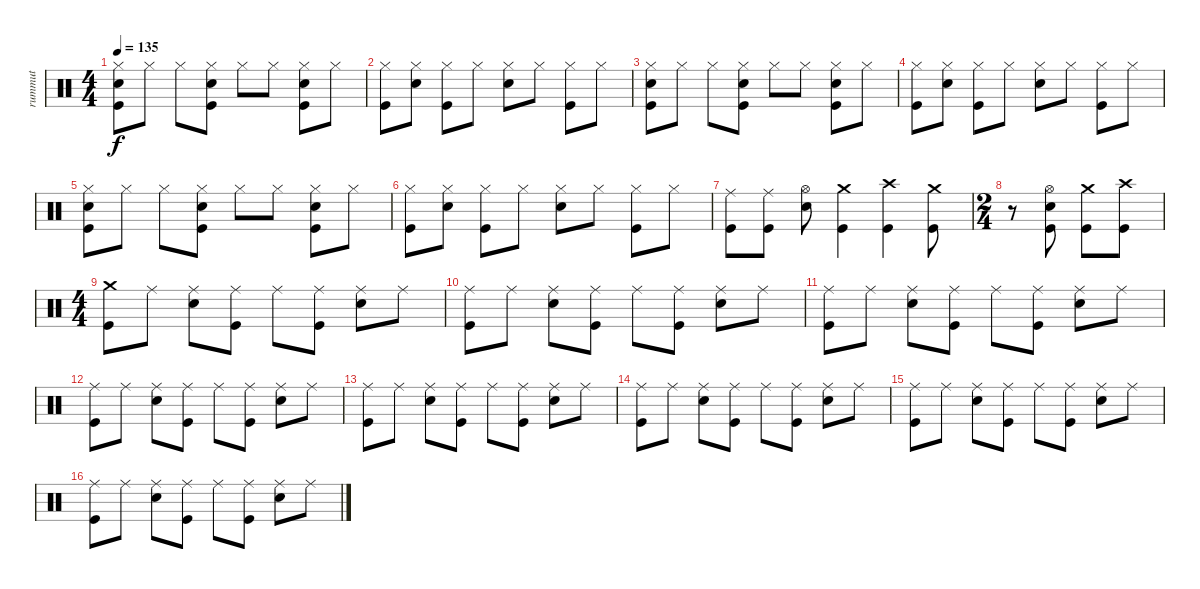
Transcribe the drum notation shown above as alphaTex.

\track ("rummut" "rummut") {instrument percussion}
\staff {score}
\articulation defaults
\ts (4 4)
\tempo 135
\clef neutral
\ks c
("Hi-Hat (closed)" "Snare (hit) 2" "Kick (hit)").8{dy f} "Hi-Hat (closed)".8 "Hi-Hat (closed)".8 ("Hi-Hat (closed)" "Snare (hit) 2" "Kick (hit)").8 "Hi-Hat (closed)".8 "Hi-Hat (closed)".8 ("Hi-Hat (closed)" "Snare (hit) 2" "Kick (hit)").8 "Hi-Hat (closed)".8 |
("Hi-Hat (closed)" "Kick (hit)").8 ("Hi-Hat (closed)" "Snare (hit) 2").8 ("Hi-Hat (closed)" "Kick (hit)").8 "Hi-Hat (closed)".8 ("Hi-Hat (closed)" "Snare (hit) 2").8 "Hi-Hat (closed)".8 ("Hi-Hat (closed)" "Kick (hit)").8 "Hi-Hat (closed)".8 |
("Hi-Hat (closed)" "Snare (hit) 2" "Kick (hit)").8 "Hi-Hat (closed)".8 "Hi-Hat (closed)".8 ("Hi-Hat (closed)" "Snare (hit) 2" "Kick (hit)").8 "Hi-Hat (closed)".8 "Hi-Hat (closed)".8 ("Hi-Hat (closed)" "Snare (hit) 2" "Kick (hit)").8 "Hi-Hat (closed)".8 |
("Hi-Hat (closed)" "Kick (hit)").8 ("Hi-Hat (closed)" "Snare (hit) 2").8 ("Hi-Hat (closed)" "Kick (hit)").8 "Hi-Hat (closed)".8 ("Hi-Hat (closed)" "Snare (hit) 2").8 "Hi-Hat (closed)".8 ("Hi-Hat (closed)" "Kick (hit)").8 "Hi-Hat (closed)".8 |
("Hi-Hat (closed)" "Snare (hit) 2" "Kick (hit)").8 "Hi-Hat (closed)".8 "Hi-Hat (closed)".8 ("Hi-Hat (closed)" "Snare (hit) 2" "Kick (hit)").8 "Hi-Hat (closed)".8 "Hi-Hat (closed)".8 ("Hi-Hat (closed)" "Snare (hit) 2" "Kick (hit)").8 "Hi-Hat (closed)".8 |
("Hi-Hat (closed)" "Kick (hit)").8 ("Hi-Hat (closed)" "Snare (hit) 2").8 ("Hi-Hat (closed)" "Kick (hit)").8 "Hi-Hat (closed)".8 ("Hi-Hat (closed)" "Snare (hit) 2").8 "Hi-Hat (closed)".8 ("Hi-Hat (closed)" "Kick (hit)").8 "Hi-Hat (closed)".8 |
("Ride (middle)" "Kick (hit)").8 ("Ride (middle)" "Kick (hit)").8 ("Hi-Hat (open)" "Snare (hit) 2").8 ("Crash medium (hit)" "Kick (hit)").4 ("Crash high (hit)" "Kick (hit)").4 ("Crash medium (hit)" "Kick (hit)").8 |
\ts (2 4)
r.8 ("Hi-Hat (open)" "Snare (hit) 2" "Kick (hit)").8 ("Crash medium (hit)" "Kick (hit)").8 ("Crash high (hit)" "Kick (hit)").8 |
\ts (4 4)
("Crash medium (hit)" "Kick (hit)").8 "Ride (middle)".8 ("Ride (middle)" "Snare (hit) 2").8 ("Ride (middle)" "Kick (hit)").8 "Ride (middle)".8 ("Ride (middle)" "Kick (hit)").8 ("Ride (middle)" "Snare (hit) 2").8 "Ride (middle)".8 |
("Ride (middle)" "Kick (hit)").8 "Ride (middle)".8 ("Ride (middle)" "Snare (hit) 2").8 ("Ride (middle)" "Kick (hit)").8 "Ride (middle)".8 ("Ride (middle)" "Kick (hit)").8 ("Ride (middle)" "Snare (hit) 2").8 "Ride (middle)".8 |
("Ride (middle)" "Kick (hit)").8 "Ride (middle)".8 ("Ride (middle)" "Snare (hit) 2").8 ("Ride (middle)" "Kick (hit)").8 "Ride (middle)".8 ("Ride (middle)" "Kick (hit)").8 ("Ride (middle)" "Snare (hit) 2").8 "Ride (middle)".8 |
("Ride (middle)" "Kick (hit)").8 "Ride (middle)".8 ("Ride (middle)" "Snare (hit) 2").8 ("Ride (middle)" "Kick (hit)").8 "Ride (middle)".8 ("Ride (middle)" "Kick (hit)").8 ("Ride (middle)" "Snare (hit) 2").8 "Ride (middle)".8 |
("Ride (middle)" "Kick (hit)").8 "Ride (middle)".8 ("Ride (middle)" "Snare (hit) 2").8 ("Ride (middle)" "Kick (hit)").8 "Ride (middle)".8 ("Ride (middle)" "Kick (hit)").8 ("Ride (middle)" "Snare (hit) 2").8 "Ride (middle)".8 |
("Ride (middle)" "Kick (hit)").8 "Ride (middle)".8 ("Ride (middle)" "Snare (hit) 2").8 ("Ride (middle)" "Kick (hit)").8 "Ride (middle)".8 ("Ride (middle)" "Kick (hit)").8 ("Ride (middle)" "Snare (hit) 2").8 "Ride (middle)".8 |
("Ride (middle)" "Kick (hit)").8 "Ride (middle)".8 ("Ride (middle)" "Snare (hit) 2").8 ("Ride (middle)" "Kick (hit)").8 "Ride (middle)".8 ("Ride (middle)" "Kick (hit)").8 ("Ride (middle)" "Snare (hit) 2").8 "Ride (middle)".8 |
("Ride (middle)" "Kick (hit)").8 "Ride (middle)".8 ("Ride (middle)" "Snare (hit) 2").8 ("Ride (middle)" "Kick (hit)").8 "Ride (middle)".8 ("Ride (middle)" "Kick (hit)").8 ("Ride (middle)" "Snare (hit) 2").8 "Ride (middle)".8
